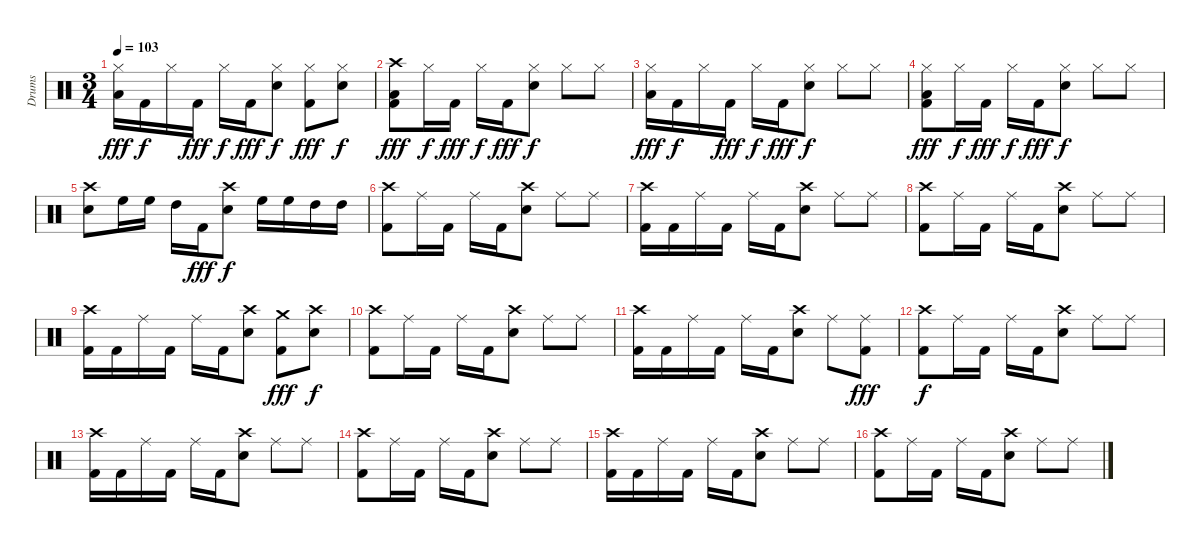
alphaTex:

\track ("Drums" "Drums") {instrument percussion}
\staff {score}
\articulation defaults
\ts (3 4)
\tempo 103
\clef neutral
\ks c
("Hi-Hat (closed)" "Low Floor Tom (hit)").16{dy fff} "Kick (hit) 2".16{dy f} "Hi-Hat (closed)".16 "Kick (hit) 2".16{dy fff} "Hi-Hat (closed)".16{dy f} "Kick (hit) 2".16{dy fff} ("Hi-Hat (closed)" "Snare (hit) 2").8{dy f} ("Hi-Hat (closed)" "Kick (hit) 2").8{dy fff} ("Hi-Hat (closed)" "Snare (hit) 2").8{dy f} |
("Crash high (hit)" "Low Floor Tom (hit)" "Kick (hit) 2").8{dy fff} "Hi-Hat (closed)".16{dy f} "Kick (hit) 2".16{dy fff} "Hi-Hat (closed)".16{dy f} "Kick (hit) 2".16{dy fff} ("Hi-Hat (closed)" "Snare (hit) 2").8{dy f} "Hi-Hat (closed)".8 "Hi-Hat (closed)".8 |
("Hi-Hat (closed)" "Low Floor Tom (hit)").16{dy fff} "Kick (hit) 2".16{dy f} "Hi-Hat (closed)".16 "Kick (hit) 2".16{dy fff} "Hi-Hat (closed)".16{dy f} "Kick (hit) 2".16{dy fff} ("Hi-Hat (closed)" "Snare (hit) 2").8{dy f} "Hi-Hat (closed)".8 "Hi-Hat (closed)".8 |
("Hi-Hat (closed)" "Low Floor Tom (hit)" "Kick (hit) 2").8{dy fff} "Hi-Hat (closed)".16{dy f} "Kick (hit) 2".16{dy fff} "Hi-Hat (closed)".16{dy f} "Kick (hit) 2".16{dy fff} ("Hi-Hat (closed)" "Snare (hit) 2").8{dy f} "Hi-Hat (closed)".8 "Hi-Hat (closed)".8 |
("Crash high (hit)" "Snare (hit) 2").8 "High Floor Tom (hit)".16 "High Floor Tom (hit)".16 "High Tom (hit)".16 "Kick (hit) 2".16{dy fff} ("Crash high (hit)" "Snare (hit) 2").8{dy f} "High Floor Tom (hit)".16 "High Floor Tom (hit)".16 "High Tom (hit)".16 "High Tom (hit)".16 |
("Crash high (hit)" "Kick (hit) 2").8 "Ride (middle)".16 "Kick (hit) 2".16 "Ride (middle)".16 "Kick (hit) 2".16 ("Crash high (hit)" "Snare (hit) 2").8 "Ride (middle)".8 "Ride (middle)".8 |
("Crash high (hit)" "Kick (hit) 2").16 "Kick (hit) 2".16 "Ride (middle)".16 "Kick (hit) 2".16 "Ride (middle)".16 "Kick (hit) 2".16 ("Crash high (hit)" "Snare (hit) 2").8 "Ride (middle)".8 "Ride (middle)".8 |
("Crash high (hit)" "Kick (hit) 2").8 "Ride (middle)".16 "Kick (hit) 2".16 "Ride (middle)".16 "Kick (hit) 2".16 ("Crash high (hit)" "Snare (hit) 2").8 "Ride (middle)".8 "Ride (middle)".8 |
("Crash high (hit)" "Kick (hit) 2").16 "Kick (hit) 2".16 "Ride (middle)".16 "Kick (hit) 2".16 "Ride (middle)".16 "Kick (hit) 2".16 ("Crash high (hit)" "Snare (hit) 2").8 ("Crash medium (hit)" "Kick (hit) 2").8{dy fff} ("Crash high (hit)" "Snare (hit) 2").8{dy f} |
("Crash high (hit)" "Kick (hit) 2").8 "Ride (middle)".16 "Kick (hit) 2".16 "Ride (middle)".16 "Kick (hit) 2".16 ("Crash high (hit)" "Snare (hit) 2").8 "Ride (middle)".8 "Ride (middle)".8 |
("Crash high (hit)" "Kick (hit) 2").16 "Kick (hit) 2".16 "Ride (middle)".16 "Kick (hit) 2".16 "Ride (middle)".16 "Kick (hit) 2".16 ("Crash high (hit)" "Snare (hit) 2").8 "Ride (middle)".8 ("Ride (middle)" "Kick (hit) 2").8{dy fff} |
("Crash high (hit)" "Kick (hit) 2").8{dy f} "Ride (middle)".16 "Kick (hit) 2".16 "Ride (middle)".16 "Kick (hit) 2".16 ("Crash high (hit)" "Snare (hit) 2").8 "Ride (middle)".8 "Ride (middle)".8 |
("Crash high (hit)" "Kick (hit) 2").16 "Kick (hit) 2".16 "Ride (middle)".16 "Kick (hit) 2".16 "Ride (middle)".16 "Kick (hit) 2".16 ("Crash high (hit)" "Snare (hit) 2").8 "Ride (middle)".8 "Ride (middle)".8 |
("Crash high (hit)" "Kick (hit) 2").8 "Ride (middle)".16 "Kick (hit) 2".16 "Ride (middle)".16 "Kick (hit) 2".16 ("Crash high (hit)" "Snare (hit) 2").8 "Ride (middle)".8 "Ride (middle)".8 |
("Crash high (hit)" "Kick (hit) 2").16 "Kick (hit) 2".16 "Ride (middle)".16 "Kick (hit) 2".16 "Ride (middle)".16 "Kick (hit) 2".16 ("Crash high (hit)" "Snare (hit) 2").8 "Ride (middle)".8 "Ride (middle)".8 |
("Crash high (hit)" "Kick (hit) 2").8 "Ride (middle)".16 "Kick (hit) 2".16 "Ride (middle)".16 "Kick (hit) 2".16 ("Crash high (hit)" "Snare (hit) 2").8 "Ride (middle)".8 "Ride (middle)".8
